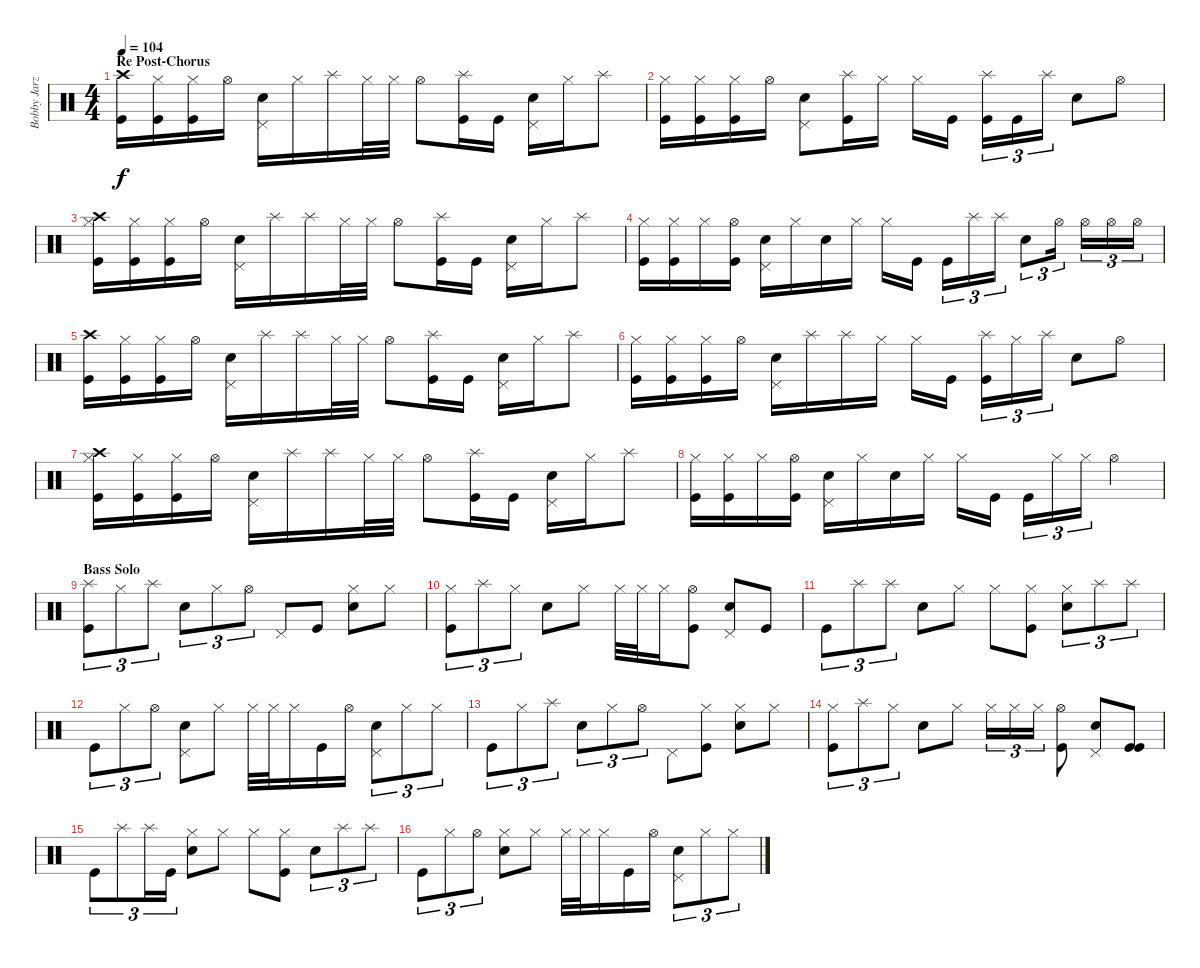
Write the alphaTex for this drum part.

\track ("Bobby Jarzombek" "Bobby Jarz") {instrument percussion}
\staff {score}
\articulation defaults
\ts (4 4)
\section ("" "Re Post-Chorus")
\tempo 104
\clef neutral
\ks c
("Crash high (hit)" "Kick (hit)").16{dy f} ("Hi-Hat (closed)" "Kick (hit)").16 ("Hi-Hat (closed)" "Kick (hit)").16 "Hi-Hat (open)".16 ("Electric Snare (hit)" "Pedal Hi-Hat (hit)").16 "Hi-Hat (closed)".16 "Splash (hit)".16 "Hi-Hat (closed)".32 "Hi-Hat (closed)".32 "Hi-Hat (open)".8 ("Splash (hit)" "Kick (hit)").16 "Kick (hit)".16 ("Electric Snare (hit)" "Pedal Hi-Hat (hit)").16 "Hi-Hat (closed)".16 "Splash (hit)".8 |
("Hi-Hat (closed)" "Kick (hit)").16 ("Hi-Hat (closed)" "Kick (hit)").16 ("Hi-Hat (closed)" "Kick (hit)").16 "Hi-Hat (open)".16 ("Electric Snare (hit)" "Pedal Hi-Hat (hit)").8 ("Splash (hit)" "Kick (hit)").16 "Hi-Hat (closed)".16 "Hi-Hat (closed)".16 "Kick (hit)".16 ("Splash (hit)" "Kick (hit)").16{tu (3 2)} "Kick (hit)".16{tu (3 2)} "Splash (hit)".16{tu (3 2)} "Electric Snare (hit)".8 "Hi-Hat (open)".8 |
("Crash high (hit)" "Hi-Hat (closed)" "Kick (hit)").16 ("Hi-Hat (closed)" "Kick (hit)").16 ("Hi-Hat (closed)" "Kick (hit)").16 "Hi-Hat (open)".16 ("Electric Snare (hit)" "Pedal Hi-Hat (hit)").16 "Splash (hit)".16 "Splash (hit)".16 "Hi-Hat (closed)".32 "Hi-Hat (closed)".32 "Hi-Hat (open)".8 ("Splash (hit)" "Kick (hit)").16 "Kick (hit)".16 ("Electric Snare (hit)" "Pedal Hi-Hat (hit)").16 "Hi-Hat (closed)".16 "Splash (hit)".8 |
("Hi-Hat (closed)" "Kick (hit)").16 ("Hi-Hat (closed)" "Kick (hit)").16 "Hi-Hat (closed)".16 ("Hi-Hat (open)" "Kick (hit)").16 ("Electric Snare (hit)" "Pedal Hi-Hat (hit)").16 "Hi-Hat (closed)".16 "Electric Snare (hit)".16 "Hi-Hat (closed)".16 "Hi-Hat (closed)".16 "Kick (hit)".16 "Kick (hit)".16{tu (3 2)} "Splash (hit)".16{tu (3 2)} "Splash (hit)".16{tu (3 2)} "Electric Snare (hit)".8{tu (3 2)} "Hi-Hat (open)".16{tu (3 2)} "Hi-Hat (open)".16{tu (3 2)} "Hi-Hat (open)".16{tu (3 2)} "Hi-Hat (open)".16{tu (3 2)} |
("Crash high (hit)" "Kick (hit)").16 ("Hi-Hat (closed)" "Kick (hit)").16 ("Hi-Hat (closed)" "Kick (hit)").16 "Hi-Hat (open)".16 ("Electric Snare (hit)" "Pedal Hi-Hat (hit)").16 "Splash (hit)".16 "Splash (hit)".16 "Hi-Hat (closed)".32 "Hi-Hat (closed)".32 "Hi-Hat (open)".8 ("Splash (hit)" "Kick (hit)").16 "Kick (hit)".16 ("Electric Snare (hit)" "Pedal Hi-Hat (hit)").16 "Hi-Hat (closed)".16 "Splash (hit)".8 |
("Hi-Hat (closed)" "Kick (hit)").16 ("Hi-Hat (closed)" "Kick (hit)").16 ("Hi-Hat (closed)" "Kick (hit)").16 "Hi-Hat (open)".16 ("Electric Snare (hit)" "Pedal Hi-Hat (hit)").16 "Splash (hit)".16 "Splash (hit)".16 "Hi-Hat (closed)".16 "Hi-Hat (closed)".16 "Kick (hit)".16 ("Splash (hit)" "Kick (hit)").16{tu (3 2)} "Hi-Hat (closed)".16{tu (3 2)} "Splash (hit)".16{tu (3 2)} "Electric Snare (hit)".8 "Hi-Hat (open)".8 |
("Crash high (hit)" "Hi-Hat (closed)" "Kick (hit)").16 ("Hi-Hat (closed)" "Kick (hit)").16 ("Hi-Hat (closed)" "Kick (hit)").16 "Hi-Hat (open)".16 ("Electric Snare (hit)" "Pedal Hi-Hat (hit)").16 "Splash (hit)".16 "Splash (hit)".16 "Hi-Hat (closed)".32 "Hi-Hat (closed)".32 "Hi-Hat (open)".8 ("Splash (hit)" "Kick (hit)").16 "Kick (hit)".16 ("Electric Snare (hit)" "Pedal Hi-Hat (hit)").16 "Hi-Hat (closed)".16 "Splash (hit)".8 |
("Hi-Hat (closed)" "Kick (hit)").16 ("Hi-Hat (closed)" "Kick (hit)").16 "Hi-Hat (closed)".16 ("Hi-Hat (open)" "Kick (hit)").16 ("Electric Snare (hit)" "Pedal Hi-Hat (hit)").16 "Hi-Hat (closed)".16 "Electric Snare (hit)".16 "Hi-Hat (closed)".16 "Hi-Hat (closed)".16 "Kick (hit)".16 "Kick (hit)".16{tu (3 2)} "Hi-Hat (closed)".16{tu (3 2)} "Hi-Hat (closed)".16{tu (3 2)} "Hi-Hat (open)".4 |
\section ("" "Bass Solo")
("Splash (hit)" "Kick (hit)").8{tu (3 2)} "Hi-Hat (closed)".8{tu (3 2)} "Splash (hit)".8{tu (3 2)} "Electric Snare (hit)".8{tu (3 2)} "Hi-Hat (closed)".8{tu (3 2)} "Hi-Hat (open)".8{tu (3 2)} "Pedal Hi-Hat (hit)".8 "Kick (hit)".8 ("Hi-Hat (closed)" "Electric Snare (hit)").8 "Hi-Hat (closed)".8 |
("Hi-Hat (closed)" "Kick (hit)").8{tu (3 2)} "Splash (hit)".8{tu (3 2)} "Hi-Hat (closed)".8{tu (3 2)} "Electric Snare (hit)".8 "Hi-Hat (closed)".8 "Hi-Hat (closed)".32 "Hi-Hat (closed)".32 "Hi-Hat (closed)".16 ("Hi-Hat (open)" "Kick (hit)").8 ("Electric Snare (hit)" "Pedal Hi-Hat (hit)").8 "Kick (hit)".8 |
"Kick (hit)".8{tu (3 2)} "Splash (hit)".8{tu (3 2)} "Splash (hit)".8{tu (3 2)} "Electric Snare (hit)".8 "Hi-Hat (closed)".8 "Hi-Hat (closed)".8 ("Hi-Hat (closed)" "Kick (hit)").8 ("Hi-Hat (closed)" "Electric Snare (hit)").8{tu (3 2)} "Splash (hit)".8{tu (3 2)} "Splash (hit)".8{tu (3 2)} |
"Kick (hit)".8{tu (3 2)} "Hi-Hat (closed)".8{tu (3 2)} "Hi-Hat (open)".8{tu (3 2)} ("Electric Snare (hit)" "Pedal Hi-Hat (hit)").8 "Hi-Hat (closed)".8 "Hi-Hat (closed)".32 "Hi-Hat (closed)".32 "Hi-Hat (closed)".16 "Kick (hit)".16 "Hi-Hat (open)".16 ("Electric Snare (hit)" "Pedal Hi-Hat (hit)").8{tu (3 2)} "Hi-Hat (closed)".8{tu (3 2)} "Hi-Hat (closed)".8{tu (3 2)} |
"Kick (hit)".8{tu (3 2)} "Hi-Hat (closed)".8{tu (3 2)} "Splash (hit)".8{tu (3 2)} "Electric Snare (hit)".8{tu (3 2)} "Hi-Hat (closed)".8{tu (3 2)} "Hi-Hat (open)".8{tu (3 2)} "Pedal Hi-Hat (hit)".8 ("Hi-Hat (closed)" "Kick (hit)").8 ("Hi-Hat (closed)" "Electric Snare (hit)").8 "Hi-Hat (closed)".8 |
("Hi-Hat (closed)" "Kick (hit)").8{tu (3 2)} "Splash (hit)".8{tu (3 2)} "Hi-Hat (closed)".8{tu (3 2)} "Electric Snare (hit)".8 "Hi-Hat (closed)".8 "Hi-Hat (closed)".16{tu (3 2)} "Hi-Hat (closed)".16{tu (3 2)} "Hi-Hat (closed)".16{tu (3 2)} ("Hi-Hat (open)" "Kick (hit)").8 ("Electric Snare (hit)" "Pedal Hi-Hat (hit)").8 ("Kick (hit)" "Kick (hit)").8 |
"Kick (hit)".8{tu (3 2)} "Splash (hit)".8{tu (3 2)} "Splash (hit)".16{tu (3 2)} "Kick (hit)".16{tu (3 2)} ("Hi-Hat (closed)" "Electric Snare (hit)").8 "Hi-Hat (closed)".8 "Hi-Hat (closed)".8 ("Hi-Hat (closed)" "Kick (hit)").8 "Electric Snare (hit)".8{tu (3 2)} "Splash (hit)".8{tu (3 2)} "Splash (hit)".8{tu (3 2)} |
"Kick (hit)".8{tu (3 2)} "Hi-Hat (closed)".8{tu (3 2)} "Hi-Hat (open)".8{tu (3 2)} ("Hi-Hat (closed)" "Electric Snare (hit)").8 "Hi-Hat (closed)".8 "Hi-Hat (closed)".32 "Hi-Hat (closed)".32 "Hi-Hat (closed)".16 "Kick (hit)".16 "Hi-Hat (open)".16 ("Electric Snare (hit)" "Pedal Hi-Hat (hit)").8{tu (3 2)} "Hi-Hat (closed)".8{tu (3 2)} "Hi-Hat (closed)".8{tu (3 2)}
